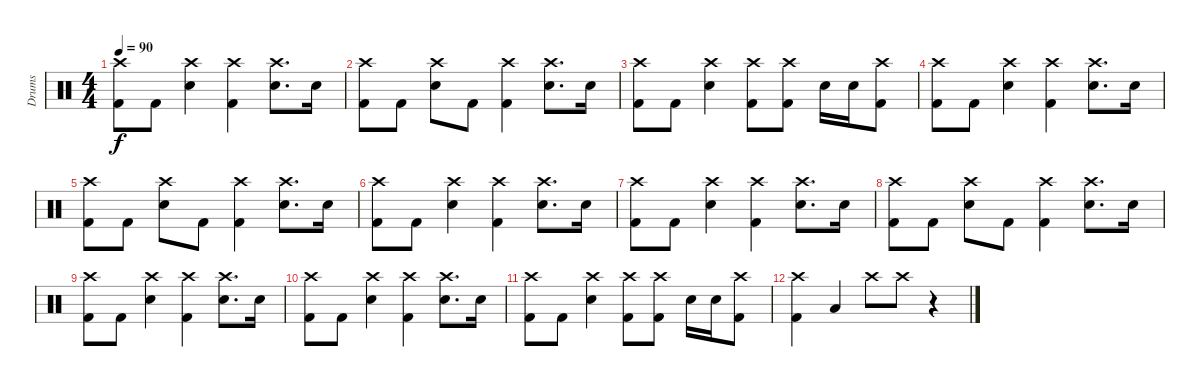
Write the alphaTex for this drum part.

\track ("Drums" "Drums") {instrument percussion}
\staff {score}
\articulation defaults
\ts (4 4)
\tempo 90
\clef neutral
\ks c
("Crash high (hit)" "Kick (hit) 2").8{dy f} "Kick (hit) 2".8 ("Crash high (hit)" "Snare (hit) 2").4 ("Crash high (hit)" "Kick (hit) 2").4 ("Crash high (hit)" "Snare (hit) 2").8{d} "Snare (hit) 2".16 |
("Crash high (hit)" "Kick (hit) 2").8 "Kick (hit) 2".8 ("Crash high (hit)" "Snare (hit) 2").8 "Kick (hit) 2".8 ("Crash high (hit)" "Kick (hit) 2").4 ("Crash high (hit)" "Snare (hit) 2").8{d} "Snare (hit) 2".16 |
("Crash high (hit)" "Kick (hit) 2").8 "Kick (hit) 2".8 ("Crash high (hit)" "Snare (hit) 2").4 ("Crash high (hit)" "Kick (hit) 2").8 ("Crash high (hit)" "Kick (hit) 2").8 "Snare (hit) 2".16 "Snare (hit) 2".16 ("Crash high (hit)" "Kick (hit) 2").8 |
("Crash high (hit)" "Kick (hit) 2").8 "Kick (hit) 2".8 ("Crash high (hit)" "Snare (hit) 2").4 ("Crash high (hit)" "Kick (hit) 2").4 ("Crash high (hit)" "Snare (hit) 2").8{d} "Snare (hit) 2".16 |
("Crash high (hit)" "Kick (hit) 2").8 "Kick (hit) 2".8 ("Crash high (hit)" "Snare (hit) 2").8 "Kick (hit) 2".8 ("Crash high (hit)" "Kick (hit) 2").4 ("Crash high (hit)" "Snare (hit) 2").8{d} "Snare (hit) 2".16 |
("Crash high (hit)" "Kick (hit) 2").8 "Kick (hit) 2".8 ("Crash high (hit)" "Snare (hit) 2").4 ("Crash high (hit)" "Kick (hit) 2").4 ("Crash high (hit)" "Snare (hit) 2").8{d} "Snare (hit) 2".16 |
("Crash high (hit)" "Kick (hit) 2").8 "Kick (hit) 2".8 ("Crash high (hit)" "Snare (hit) 2").4 ("Crash high (hit)" "Kick (hit) 2").4 ("Crash high (hit)" "Snare (hit) 2").8{d} "Snare (hit) 2".16 |
("Crash high (hit)" "Kick (hit) 2").8 "Kick (hit) 2".8 ("Crash high (hit)" "Snare (hit) 2").8 "Kick (hit) 2".8 ("Crash high (hit)" "Kick (hit) 2").4 ("Crash high (hit)" "Snare (hit) 2").8{d} "Snare (hit) 2".16 |
("Crash high (hit)" "Kick (hit) 2").8 "Kick (hit) 2".8 ("Crash high (hit)" "Snare (hit) 2").4 ("Crash high (hit)" "Kick (hit) 2").4 ("Crash high (hit)" "Snare (hit) 2").8{d} "Snare (hit) 2".16 |
("Crash high (hit)" "Kick (hit) 2").8 "Kick (hit) 2".8 ("Crash high (hit)" "Snare (hit) 2").4 ("Crash high (hit)" "Kick (hit) 2").4 ("Crash high (hit)" "Snare (hit) 2").8{d} "Snare (hit) 2".16 |
("Crash high (hit)" "Kick (hit) 2").8 "Kick (hit) 2".8 ("Crash high (hit)" "Snare (hit) 2").4 ("Crash high (hit)" "Kick (hit) 2").8 ("Crash high (hit)" "Kick (hit) 2").8 "Snare (hit) 2".16 "Snare (hit) 2".16 ("Crash high (hit)" "Kick (hit) 2").8 |
("Crash high (hit)" "Kick (hit) 2").4 "Low Floor Tom (hit)".4 "Crash high (hit)".8 "Crash high (hit)".8 r.4
